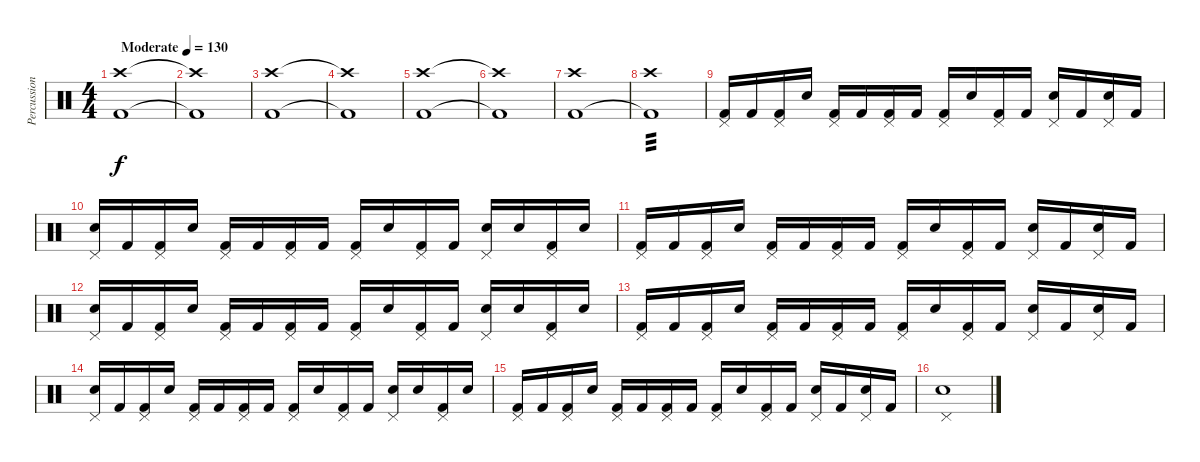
\track ("Percussion" "Percussion") {instrument percussion}
\staff {score}
\articulation defaults
\ts (4 4)
\tempo (130 "Moderate")
\clef neutral
\ks c
("Crash high (hit)" "Kick (hit) 2").1{dy f volume 4} |
("Crash high (hit)"{t} "Kick (hit) 2"{t}).1 |
("Crash high (hit)" "Kick (hit) 2").1 |
("Crash high (hit)"{t} "Kick (hit) 2"{t}).1 |
("Crash high (hit)" "Kick (hit) 2").1 |
("Crash high (hit)"{t} "Kick (hit) 2"{t}).1 |
("Crash high (hit)" "Kick (hit) 2").1 |
("Crash high (hit)" "Kick (hit) 2"{t}).1{tp 3 volume 13} |
("Pedal Hi-Hat (hit)" "Kick (hit) 2").16 "Kick (hit) 2".16 ("Pedal Hi-Hat (hit)" "Kick (hit) 2").16 "Electric Snare (hit)".16 ("Pedal Hi-Hat (hit)" "Kick (hit) 2").16 "Kick (hit) 2".16 ("Pedal Hi-Hat (hit)" "Kick (hit) 2").16 "Kick (hit) 2".16 ("Pedal Hi-Hat (hit)" "Kick (hit) 2").16 "Electric Snare (hit)".16 ("Pedal Hi-Hat (hit)" "Kick (hit) 2").16 "Kick (hit) 2".16 ("Pedal Hi-Hat (hit)" "Electric Snare (hit)").16 "Kick (hit) 2".16 ("Pedal Hi-Hat (hit)" "Electric Snare (hit)").16 "Kick (hit) 2".16 |
("Pedal Hi-Hat (hit)" "Electric Snare (hit)").16 "Kick (hit) 2".16 ("Pedal Hi-Hat (hit)" "Kick (hit) 2").16 "Electric Snare (hit)".16 ("Pedal Hi-Hat (hit)" "Kick (hit) 2").16 "Kick (hit) 2".16 ("Pedal Hi-Hat (hit)" "Kick (hit) 2").16 "Kick (hit) 2".16 ("Pedal Hi-Hat (hit)" "Kick (hit) 2").16 "Electric Snare (hit)".16 ("Pedal Hi-Hat (hit)" "Kick (hit) 2").16 "Kick (hit) 2".16 ("Pedal Hi-Hat (hit)" "Electric Snare (hit)").16 "Electric Snare (hit)".16 ("Pedal Hi-Hat (hit)" "Kick (hit) 2").16 "Electric Snare (hit)".16 |
("Pedal Hi-Hat (hit)" "Kick (hit) 2").16 "Kick (hit) 2".16 ("Pedal Hi-Hat (hit)" "Kick (hit) 2").16 "Electric Snare (hit)".16 ("Pedal Hi-Hat (hit)" "Kick (hit) 2").16 "Kick (hit) 2".16 ("Pedal Hi-Hat (hit)" "Kick (hit) 2").16 "Kick (hit) 2".16 ("Pedal Hi-Hat (hit)" "Kick (hit) 2").16 "Electric Snare (hit)".16 ("Pedal Hi-Hat (hit)" "Kick (hit) 2").16 "Kick (hit) 2".16 ("Pedal Hi-Hat (hit)" "Electric Snare (hit)").16 "Kick (hit) 2".16 ("Pedal Hi-Hat (hit)" "Electric Snare (hit)").16 "Kick (hit) 2".16 |
("Pedal Hi-Hat (hit)" "Electric Snare (hit)").16 "Kick (hit) 2".16 ("Pedal Hi-Hat (hit)" "Kick (hit) 2").16 "Electric Snare (hit)".16 ("Pedal Hi-Hat (hit)" "Kick (hit) 2").16 "Kick (hit) 2".16 ("Pedal Hi-Hat (hit)" "Kick (hit) 2").16 "Kick (hit) 2".16 ("Pedal Hi-Hat (hit)" "Kick (hit) 2").16 "Electric Snare (hit)".16 ("Pedal Hi-Hat (hit)" "Kick (hit) 2").16 "Kick (hit) 2".16 ("Pedal Hi-Hat (hit)" "Electric Snare (hit)").16 "Electric Snare (hit)".16 ("Pedal Hi-Hat (hit)" "Kick (hit) 2").16 "Electric Snare (hit)".16 |
("Pedal Hi-Hat (hit)" "Kick (hit) 2").16 "Kick (hit) 2".16 ("Pedal Hi-Hat (hit)" "Kick (hit) 2").16 "Electric Snare (hit)".16 ("Pedal Hi-Hat (hit)" "Kick (hit) 2").16 "Kick (hit) 2".16 ("Pedal Hi-Hat (hit)" "Kick (hit) 2").16 "Kick (hit) 2".16 ("Pedal Hi-Hat (hit)" "Kick (hit) 2").16 "Electric Snare (hit)".16 ("Pedal Hi-Hat (hit)" "Kick (hit) 2").16 "Kick (hit) 2".16 ("Pedal Hi-Hat (hit)" "Electric Snare (hit)").16 "Kick (hit) 2".16 ("Pedal Hi-Hat (hit)" "Electric Snare (hit)").16 "Kick (hit) 2".16 |
("Pedal Hi-Hat (hit)" "Electric Snare (hit)").16 "Kick (hit) 2".16 ("Pedal Hi-Hat (hit)" "Kick (hit) 2").16 "Electric Snare (hit)".16 ("Pedal Hi-Hat (hit)" "Kick (hit) 2").16 "Kick (hit) 2".16 ("Pedal Hi-Hat (hit)" "Kick (hit) 2").16 "Kick (hit) 2".16 ("Pedal Hi-Hat (hit)" "Kick (hit) 2").16 "Electric Snare (hit)".16 ("Pedal Hi-Hat (hit)" "Kick (hit) 2").16 "Kick (hit) 2".16 ("Pedal Hi-Hat (hit)" "Electric Snare (hit)").16 "Electric Snare (hit)".16 ("Pedal Hi-Hat (hit)" "Kick (hit) 2").16 "Electric Snare (hit)".16 |
("Pedal Hi-Hat (hit)" "Kick (hit) 2").16 "Kick (hit) 2".16 ("Pedal Hi-Hat (hit)" "Kick (hit) 2").16 "Electric Snare (hit)".16 ("Pedal Hi-Hat (hit)" "Kick (hit) 2").16 "Kick (hit) 2".16 ("Pedal Hi-Hat (hit)" "Kick (hit) 2").16 "Kick (hit) 2".16 ("Pedal Hi-Hat (hit)" "Kick (hit) 2").16 "Electric Snare (hit)".16 ("Pedal Hi-Hat (hit)" "Kick (hit) 2").16 "Kick (hit) 2".16 ("Pedal Hi-Hat (hit)" "Electric Snare (hit)").16 "Kick (hit) 2".16 ("Pedal Hi-Hat (hit)" "Electric Snare (hit)").16 "Kick (hit) 2".16 |
("Pedal Hi-Hat (hit)" "Electric Snare (hit)").1
